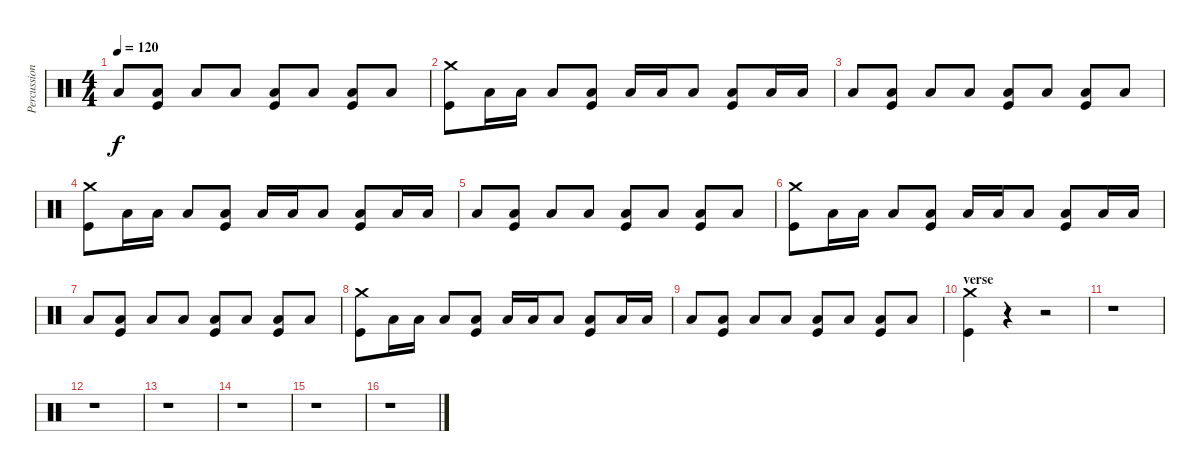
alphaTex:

\track ("Percussion" "Percussion") {instrument percussion}
\staff {score}
\articulation defaults
\ts (4 4)
\tempo 120
\clef neutral
\ks c "Low Floor Tom (hit)".8{dy f}
("Low Floor Tom (hit)" "Kick (hit)").8 "Low Floor Tom (hit)".8 "Low Floor Tom (hit)".8 ("Low Floor Tom (hit)" "Kick (hit)").8 "Low Floor Tom (hit)".8 ("Low Floor Tom (hit)" "Kick (hit)").8 "Low Floor Tom (hit)".8 |
("Crash medium (hit)" "Kick (hit)").8 "Low Floor Tom (hit)".16 "Low Floor Tom (hit)".16 "Low Floor Tom (hit)".8 ("Low Floor Tom (hit)" "Kick (hit)").8 "Low Floor Tom (hit)".16 "Low Floor Tom (hit)".16 "Low Floor Tom (hit)".8 ("Low Floor Tom (hit)" "Kick (hit)").8 "Low Floor Tom (hit)".16 "Low Floor Tom (hit)".16 |
"Low Floor Tom (hit)".8 ("Low Floor Tom (hit)" "Kick (hit)").8 "Low Floor Tom (hit)".8 "Low Floor Tom (hit)".8 ("Low Floor Tom (hit)" "Kick (hit)").8 "Low Floor Tom (hit)".8 ("Low Floor Tom (hit)" "Kick (hit)").8 "Low Floor Tom (hit)".8 |
("Crash medium (hit)" "Kick (hit)").8 "Low Floor Tom (hit)".16 "Low Floor Tom (hit)".16 "Low Floor Tom (hit)".8 ("Low Floor Tom (hit)" "Kick (hit)").8 "Low Floor Tom (hit)".16 "Low Floor Tom (hit)".16 "Low Floor Tom (hit)".8 ("Low Floor Tom (hit)" "Kick (hit)").8 "Low Floor Tom (hit)".16 "Low Floor Tom (hit)".16 |
"Low Floor Tom (hit)".8 ("Low Floor Tom (hit)" "Kick (hit)").8 "Low Floor Tom (hit)".8 "Low Floor Tom (hit)".8 ("Low Floor Tom (hit)" "Kick (hit)").8 "Low Floor Tom (hit)".8 ("Low Floor Tom (hit)" "Kick (hit)").8 "Low Floor Tom (hit)".8 |
("Crash medium (hit)" "Kick (hit)").8 "Low Floor Tom (hit)".16 "Low Floor Tom (hit)".16 "Low Floor Tom (hit)".8 ("Low Floor Tom (hit)" "Kick (hit)").8 "Low Floor Tom (hit)".16 "Low Floor Tom (hit)".16 "Low Floor Tom (hit)".8 ("Low Floor Tom (hit)" "Kick (hit)").8 "Low Floor Tom (hit)".16 "Low Floor Tom (hit)".16 |
"Low Floor Tom (hit)".8 ("Low Floor Tom (hit)" "Kick (hit)").8 "Low Floor Tom (hit)".8 "Low Floor Tom (hit)".8 ("Low Floor Tom (hit)" "Kick (hit)").8 "Low Floor Tom (hit)".8 ("Low Floor Tom (hit)" "Kick (hit)").8 "Low Floor Tom (hit)".8 |
("Crash medium (hit)" "Kick (hit)").8 "Low Floor Tom (hit)".16 "Low Floor Tom (hit)".16 "Low Floor Tom (hit)".8 ("Low Floor Tom (hit)" "Kick (hit)").8 "Low Floor Tom (hit)".16 "Low Floor Tom (hit)".16 "Low Floor Tom (hit)".8 ("Low Floor Tom (hit)" "Kick (hit)").8 "Low Floor Tom (hit)".16 "Low Floor Tom (hit)".16 |
"Low Floor Tom (hit)".8 ("Low Floor Tom (hit)" "Kick (hit)").8 "Low Floor Tom (hit)".8 "Low Floor Tom (hit)".8 ("Low Floor Tom (hit)" "Kick (hit)").8 "Low Floor Tom (hit)".8 ("Low Floor Tom (hit)" "Kick (hit)").8 "Low Floor Tom (hit)".8 |
\section ("" "verse")
("Crash medium (hit)" "Kick (hit)").4 r.4 r.2 |
r.1 |
r.1 |
r.1 |
r.1 |
r.1 |
r.1
